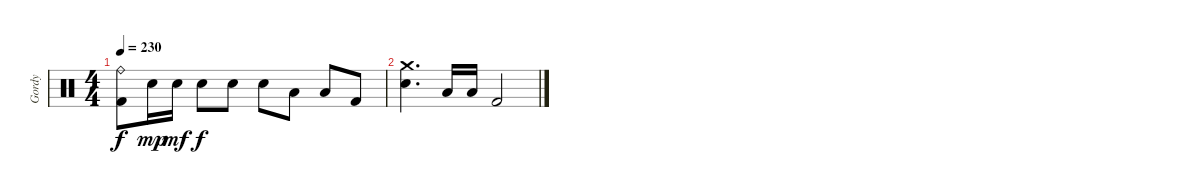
\track ("Gordy" "Gordy") {instrument percussion}
\staff {score}
\articulation defaults
\ts (4 4)
\tempo 230
\clef neutral
\ks c
("Ride (bell)" "Kick (hit) 2").8{dy f} "Electric Snare (hit)".16{dy mp} "Electric Snare (hit)".16{dy mf} "Electric Snare (hit)".8{dy f} "Electric Snare (hit)".8 "Electric Snare (hit)".8 "Low Tom (hit)".8 "Low Floor Tom (hit)".8 "Kick (hit) 2".8 |
("Crash medium (hit)" "Electric Snare (hit)").4{d} "Low Tom (hit)".16 "Low Floor Tom (hit)".16 "Kick (hit) 2".2
